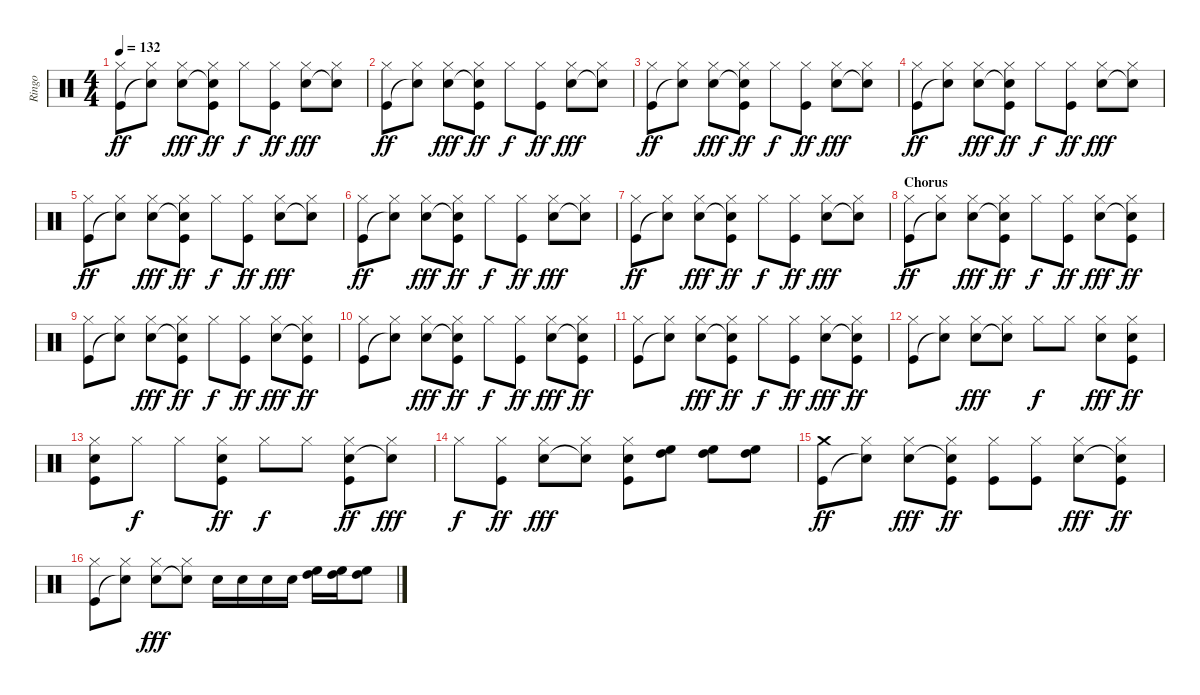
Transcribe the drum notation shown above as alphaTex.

\track ("Ringo" "Ringo") {instrument percussion}
\staff {score}
\articulation defaults
\ts (4 4)
\tempo 132
\clef neutral
\ks c
("Hi-Hat (closed)" "Kick (hit)").8{dy ff} ("Hi-Hat (closed)" "Snare (hit)"{t}).8 ("Hi-Hat (closed)" "Snare (hit) 2").8{dy fff} ("Hi-Hat (closed)" "Snare (hit)"{t} "Kick (hit)").8{dy ff} "Hi-Hat (closed)".8{dy f} ("Hi-Hat (closed)" "Kick (hit)").8{dy ff} ("Hi-Hat (closed)" "Snare (hit) 2").8{dy fff} ("Hi-Hat (closed)" "Snare (hit)"{t}).8 |
("Hi-Hat (closed)" "Kick (hit)").8{dy ff} ("Hi-Hat (closed)" "Snare (hit)"{t}).8 ("Hi-Hat (closed)" "Snare (hit) 2").8{dy fff} ("Hi-Hat (closed)" "Snare (hit)"{t} "Kick (hit)").8{dy ff} "Hi-Hat (closed)".8{dy f} ("Hi-Hat (closed)" "Kick (hit)").8{dy ff} ("Hi-Hat (closed)" "Snare (hit) 2").8{dy fff} ("Hi-Hat (closed)" "Snare (hit)"{t}).8 |
("Hi-Hat (closed)" "Kick (hit)").8{dy ff} ("Hi-Hat (closed)" "Snare (hit)"{t}).8 ("Hi-Hat (closed)" "Snare (hit) 2").8{dy fff} ("Hi-Hat (closed)" "Snare (hit)"{t} "Kick (hit)").8{dy ff} "Hi-Hat (closed)".8{dy f} ("Hi-Hat (closed)" "Kick (hit)").8{dy ff} ("Hi-Hat (closed)" "Snare (hit) 2").8{dy fff} ("Hi-Hat (closed)" "Snare (hit)"{t}).8 |
("Hi-Hat (closed)" "Kick (hit)").8{dy ff} ("Hi-Hat (closed)" "Snare (hit)"{t}).8 ("Hi-Hat (closed)" "Snare (hit) 2").8{dy fff} ("Hi-Hat (closed)" "Snare (hit)"{t} "Kick (hit)").8{dy ff} "Hi-Hat (closed)".8{dy f} ("Hi-Hat (closed)" "Kick (hit)").8{dy ff} ("Hi-Hat (closed)" "Snare (hit) 2").8{dy fff} ("Hi-Hat (closed)" "Snare (hit)"{t}).8 |
("Hi-Hat (closed)" "Kick (hit)").8{dy ff} ("Hi-Hat (closed)" "Snare (hit)"{t}).8 ("Hi-Hat (closed)" "Snare (hit) 2").8{dy fff} ("Hi-Hat (closed)" "Snare (hit)"{t} "Kick (hit)").8{dy ff} "Hi-Hat (closed)".8{dy f} ("Hi-Hat (closed)" "Kick (hit)").8{dy ff} ("Hi-Hat (closed)" "Snare (hit) 2").8{dy fff} ("Hi-Hat (closed)" "Snare (hit)"{t}).8 |
("Hi-Hat (closed)" "Kick (hit)").8{dy ff} ("Hi-Hat (closed)" "Snare (hit)"{t}).8 ("Hi-Hat (closed)" "Snare (hit) 2").8{dy fff} ("Hi-Hat (closed)" "Snare (hit)"{t} "Kick (hit)").8{dy ff} "Hi-Hat (closed)".8{dy f} ("Hi-Hat (closed)" "Kick (hit)").8{dy ff} ("Hi-Hat (closed)" "Snare (hit) 2").8{dy fff} ("Hi-Hat (closed)" "Snare (hit)"{t}).8 |
("Hi-Hat (closed)" "Kick (hit)").8{dy ff} ("Hi-Hat (closed)" "Snare (hit)"{t}).8 ("Hi-Hat (closed)" "Snare (hit) 2").8{dy fff} ("Hi-Hat (closed)" "Snare (hit)"{t} "Kick (hit)").8{dy ff} "Hi-Hat (closed)".8{dy f} ("Hi-Hat (closed)" "Kick (hit)").8{dy ff} ("Hi-Hat (closed)" "Snare (hit) 2").8{dy fff} ("Hi-Hat (closed)" "Snare (hit)"{t}).8 |
\section ("" "Chorus")
("Hi-Hat (closed)" "Kick (hit)").8{dy ff} ("Hi-Hat (closed)" "Snare (hit)"{t}).8 ("Hi-Hat (closed)" "Snare (hit) 2").8{dy fff} ("Hi-Hat (closed)" "Snare (hit)"{t} "Kick (hit)").8{dy ff} "Hi-Hat (closed)".8{dy f} ("Hi-Hat (closed)" "Kick (hit)").8{dy ff} ("Hi-Hat (closed)" "Snare (hit) 2").8{dy fff} ("Hi-Hat (closed)" "Snare (hit)"{t} "Kick (hit)").8{dy ff} |
("Hi-Hat (closed)" "Kick (hit)").8 ("Hi-Hat (closed)" "Snare (hit)"{t}).8 ("Hi-Hat (closed)" "Electric Snare (hit)").8{dy fff} ("Hi-Hat (closed)" "Snare (hit)"{t} "Kick (hit)").8{dy ff} "Hi-Hat (closed)".8{dy f} ("Hi-Hat (closed)" "Kick (hit)").8{dy ff} ("Hi-Hat (closed)" "Electric Snare (hit)").8{dy fff} ("Hi-Hat (closed)" "Snare (hit)"{t} "Kick (hit)").8{dy ff} |
("Hi-Hat (closed)" "Kick (hit)").8 ("Hi-Hat (closed)" "Snare (hit)"{t}).8 ("Hi-Hat (closed)" "Electric Snare (hit)").8{dy fff} ("Hi-Hat (closed)" "Snare (hit)"{t} "Kick (hit)").8{dy ff} "Hi-Hat (closed)".8{dy f} ("Hi-Hat (closed)" "Kick (hit)").8{dy ff} ("Hi-Hat (closed)" "Electric Snare (hit)").8{dy fff} ("Hi-Hat (closed)" "Snare (hit)"{t} "Kick (hit)").8{dy ff} |
("Hi-Hat (closed)" "Kick (hit)").8 ("Hi-Hat (closed)" "Snare (hit)"{t}).8 ("Hi-Hat (closed)" "Electric Snare (hit)").8{dy fff} ("Hi-Hat (closed)" "Snare (hit)"{t} "Kick (hit)").8{dy ff} "Hi-Hat (closed)".8{dy f} ("Hi-Hat (closed)" "Kick (hit)").8{dy ff} ("Hi-Hat (closed)" "Electric Snare (hit)").8{dy fff} ("Hi-Hat (closed)" "Snare (hit)"{t} "Kick (hit)").8{dy ff} |
("Hi-Hat (closed)" "Kick (hit)").8 ("Hi-Hat (closed)" "Snare (hit)"{t}).8 ("Hi-Hat (closed)" "Electric Snare (hit)").8{dy fff} ("Hi-Hat (closed)" "Snare (hit)"{t}).8 "Hi-Hat (closed)".8{dy f} "Hi-Hat (closed)".8 ("Hi-Hat (closed)" "Electric Snare (hit)").8{dy fff} ("Hi-Hat (closed)" "Electric Snare (hit)" "Kick (hit)").8{dy ff} |
("Hi-Hat (closed)" "Electric Snare (hit)" "Kick (hit)").8 "Hi-Hat (closed)".8{dy f} "Hi-Hat (closed)".8 ("Hi-Hat (closed)" "Electric Snare (hit)" "Kick (hit)").8{dy ff} "Hi-Hat (closed)".8{dy f} "Hi-Hat (closed)".8 ("Hi-Hat (closed)" "Electric Snare (hit)" "Kick (hit)").8{dy ff} ("Hi-Hat (closed)" "Snare (hit)"{t}).8{dy fff} |
"Hi-Hat (closed)".8{dy f} ("Hi-Hat (closed)" "Kick (hit)").8{dy ff} ("Hi-Hat (closed)" "Electric Snare (hit)").8{dy fff} ("Hi-Hat (closed)" "Snare (hit)"{t}).8 ("Hi-Hat (closed)" "Electric Snare (hit)" "Kick (hit)").8 ("High Tom (hit)" "High Floor Tom (hit)").8 ("High Tom (hit)" "High Floor Tom (hit)").8 ("High Tom (hit)" "High Floor Tom (hit)").8 |
("Crash medium (hit)" "Kick (hit)").8{dy ff} ("Hi-Hat (closed)" "Snare (hit)"{t}).8 ("Hi-Hat (closed)" "Electric Snare (hit)").8{dy fff} ("Hi-Hat (closed)" "Snare (hit)"{t} "Kick (hit)").8{dy ff} ("Hi-Hat (closed)" "Kick (hit)").8 ("Hi-Hat (closed)" "Kick (hit)").8 ("Hi-Hat (closed)" "Electric Snare (hit)").8{dy fff} ("Hi-Hat (closed)" "Snare (hit)"{t} "Kick (hit)").8{dy ff} |
("Hi-Hat (closed)" "Kick (hit)").8 ("Hi-Hat (closed)" "Snare (hit)"{t}).8 ("Hi-Hat (closed)" "Electric Snare (hit)").8{dy fff} ("Hi-Hat (closed)" "Snare (hit)"{t}).8 "Electric Snare (hit)".16 "Electric Snare (hit)".16 "Electric Snare (hit)".16 "Electric Snare (hit)".16 ("High Tom (hit)" "High Floor Tom (hit)").16 ("High Tom (hit)" "High Floor Tom (hit)").16 ("High Tom (hit)" "High Floor Tom (hit)").8
